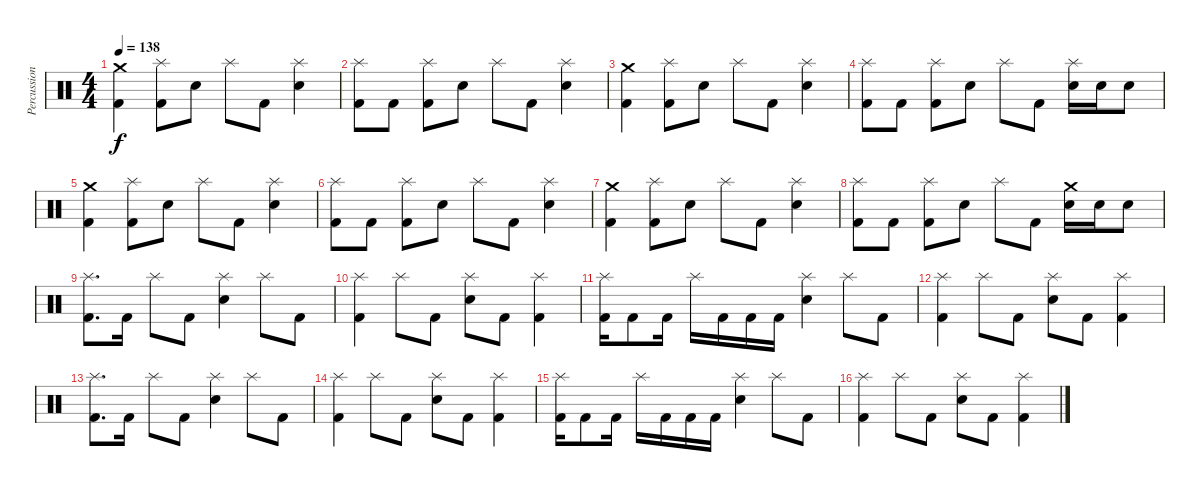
\track ("Percussion" "Percussion") {instrument percussion}
\staff {score}
\articulation defaults
\ts (4 4)
\tempo 138
\clef neutral
\ks c
("Crash medium (hit)" "Kick (hit) 2").4{dy f} ("Splash (hit)" "Kick (hit) 2").8 "Snare (hit) 2".8 "Splash (hit)".8 "Kick (hit) 2".8 ("Splash (hit)" "Snare (hit) 2").4 |
("Splash (hit)" "Kick (hit) 2").8 "Kick (hit) 2".8 ("Splash (hit)" "Kick (hit) 2").8 "Snare (hit) 2".8 "Splash (hit)".8 "Kick (hit) 2".8 ("Splash (hit)" "Snare (hit) 2").4 |
("Crash medium (hit)" "Kick (hit) 2").4 ("Splash (hit)" "Kick (hit) 2").8 "Snare (hit) 2".8 "Splash (hit)".8 "Kick (hit) 2".8 ("Splash (hit)" "Snare (hit) 2").4 |
("Splash (hit)" "Kick (hit) 2").8 "Kick (hit) 2".8 ("Splash (hit)" "Kick (hit) 2").8 "Snare (hit) 2".8 "Splash (hit)".8 "Kick (hit) 2".8 ("Splash (hit)" "Snare (hit) 2").16 "Snare (hit) 2".16 "Snare (hit) 2".8 |
("Crash medium (hit)" "Kick (hit) 2").4 ("Splash (hit)" "Kick (hit) 2").8 "Snare (hit) 2".8 "Splash (hit)".8 "Kick (hit) 2".8 ("Splash (hit)" "Snare (hit) 2").4 |
("Splash (hit)" "Kick (hit) 2").8 "Kick (hit) 2".8 ("Splash (hit)" "Kick (hit) 2").8 "Snare (hit) 2".8 "Splash (hit)".8 "Kick (hit) 2".8 ("Splash (hit)" "Snare (hit) 2").4 |
("Crash medium (hit)" "Kick (hit) 2").4 ("Splash (hit)" "Kick (hit) 2").8 "Snare (hit) 2".8 "Splash (hit)".8 "Kick (hit) 2".8 ("Splash (hit)" "Snare (hit) 2").4 |
("Splash (hit)" "Kick (hit) 2").8 "Kick (hit) 2".8 ("Splash (hit)" "Kick (hit) 2").8 "Snare (hit) 2".8 "Splash (hit)".8 "Kick (hit) 2".8 ("Crash medium (hit)" "Snare (hit) 2").16 "Snare (hit) 2".16 "Snare (hit) 2".8 |
("Splash (hit)" "Kick (hit) 2").8{d} "Kick (hit) 2".16 "Splash (hit)".8 "Kick (hit) 2".8 ("Splash (hit)" "Snare (hit) 2").4 "Splash (hit)".8 "Kick (hit) 2".8 |
("Splash (hit)" "Kick (hit) 2").4 "Splash (hit)".8 "Kick (hit) 2".8 ("Splash (hit)" "Electric Snare (hit)").8 "Kick (hit) 2".8 ("Splash (hit)" "Kick (hit) 2").4 |
("Splash (hit)" "Kick (hit) 2").16 "Kick (hit) 2".8 "Kick (hit) 2".16 "Splash (hit)".16 "Kick (hit) 2".16 "Kick (hit) 2".16 "Kick (hit) 2".16 ("Splash (hit)" "Snare (hit) 2").4 "Splash (hit)".8 "Kick (hit) 2".8 |
("Splash (hit)" "Kick (hit) 2").4 "Splash (hit)".8 "Kick (hit) 2".8 ("Splash (hit)" "Electric Snare (hit)").8 "Kick (hit) 2".8 ("Splash (hit)" "Kick (hit) 2").4 |
("Splash (hit)" "Kick (hit) 2").8{d} "Kick (hit) 2".16 "Splash (hit)".8 "Kick (hit) 2".8 ("Splash (hit)" "Snare (hit) 2").4 "Splash (hit)".8 "Kick (hit) 2".8 |
("Splash (hit)" "Kick (hit) 2").4 "Splash (hit)".8 "Kick (hit) 2".8 ("Splash (hit)" "Electric Snare (hit)").8 "Kick (hit) 2".8 ("Splash (hit)" "Kick (hit) 2").4 |
("Splash (hit)" "Kick (hit) 2").16 "Kick (hit) 2".8 "Kick (hit) 2".16 "Splash (hit)".16 "Kick (hit) 2".16 "Kick (hit) 2".16 "Kick (hit) 2".16 ("Splash (hit)" "Snare (hit) 2").4 "Splash (hit)".8 "Kick (hit) 2".8 |
("Splash (hit)" "Kick (hit) 2").4 "Splash (hit)".8 "Kick (hit) 2".8 ("Splash (hit)" "Electric Snare (hit)").8 "Kick (hit) 2".8 ("Splash (hit)" "Kick (hit) 2").4
